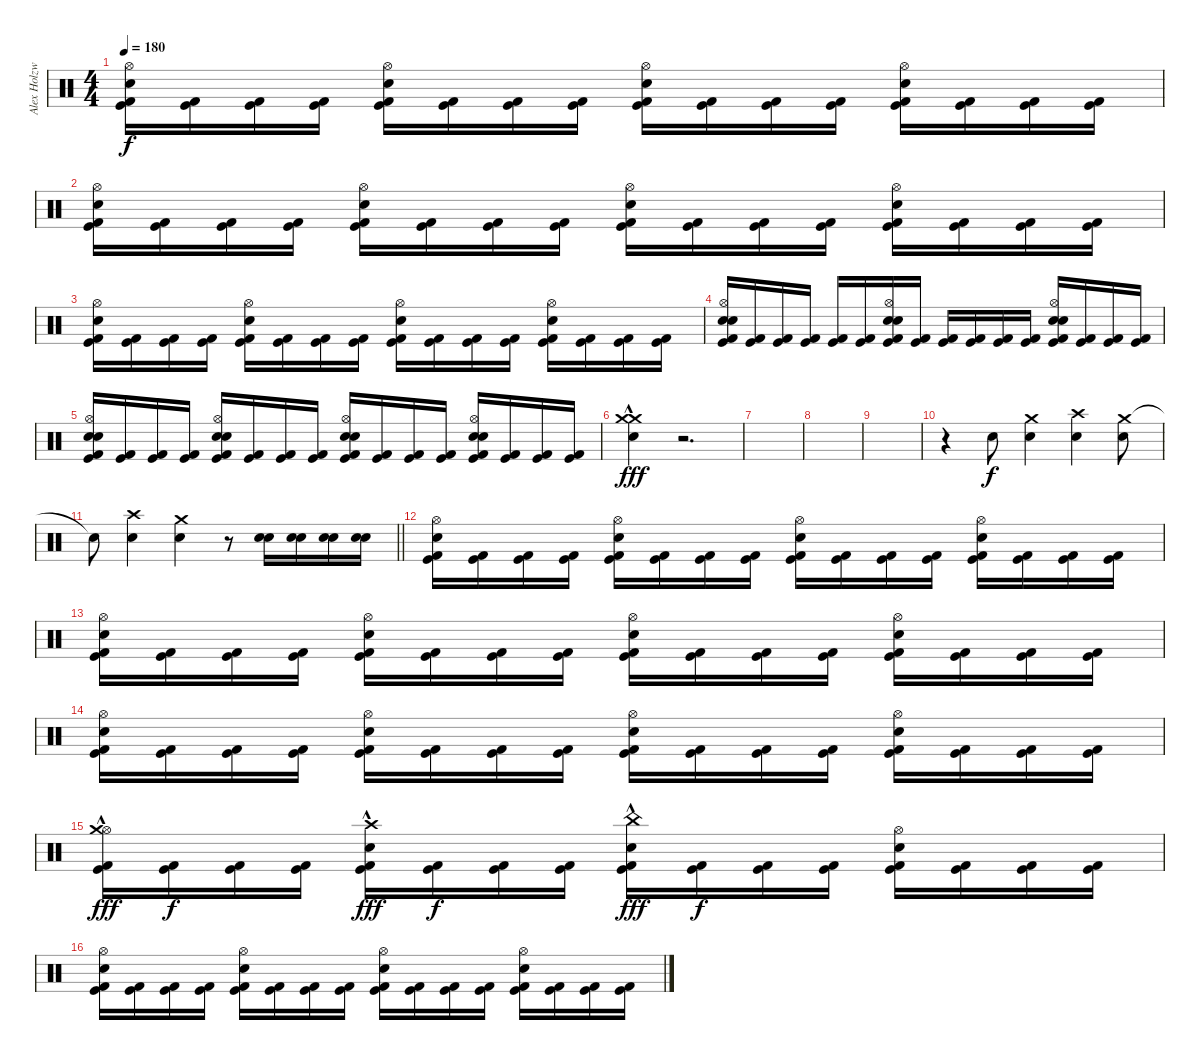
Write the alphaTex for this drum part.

\track ("Alex Holzwarth" "Alex Holzw") {instrument percussion}
\staff {score}
\articulation defaults
\ts (4 4)
\tempo 180
\clef neutral
\ks c
("Kick (hit) 2" "Kick (hit)" "Snare (hit) 2" "Hi-Hat (open)").16{dy f} ("Kick (hit) 2" "Kick (hit)").16 ("Kick (hit) 2" "Kick (hit)").16 ("Kick (hit) 2" "Kick (hit)").16 ("Kick (hit) 2" "Kick (hit)" "Hi-Hat (open)" "Snare (hit) 2").16 ("Kick (hit) 2" "Kick (hit)").16 ("Kick (hit) 2" "Kick (hit)").16 ("Kick (hit) 2" "Kick (hit)").16 ("Kick (hit) 2" "Kick (hit)" "Hi-Hat (open)" "Snare (hit) 2").16 ("Kick (hit) 2" "Kick (hit)").16 ("Kick (hit) 2" "Kick (hit)").16 ("Kick (hit) 2" "Kick (hit)").16 ("Kick (hit) 2" "Kick (hit)" "Hi-Hat (open)" "Snare (hit) 2").16 ("Kick (hit) 2" "Kick (hit)").16 ("Kick (hit) 2" "Kick (hit)").16 ("Kick (hit) 2" "Kick (hit)").16 |
("Kick (hit) 2" "Kick (hit)" "Snare (hit) 2" "Hi-Hat (open)").16 ("Kick (hit) 2" "Kick (hit)").16 ("Kick (hit) 2" "Kick (hit)").16 ("Kick (hit) 2" "Kick (hit)").16 ("Kick (hit) 2" "Kick (hit)" "Hi-Hat (open)" "Snare (hit) 2").16 ("Kick (hit) 2" "Kick (hit)").16 ("Kick (hit) 2" "Kick (hit)").16 ("Kick (hit) 2" "Kick (hit)").16 ("Kick (hit) 2" "Kick (hit)" "Hi-Hat (open)" "Snare (hit) 2").16 ("Kick (hit) 2" "Kick (hit)").16 ("Kick (hit) 2" "Kick (hit)").16 ("Kick (hit) 2" "Kick (hit)").16 ("Kick (hit) 2" "Kick (hit)" "Hi-Hat (open)" "Snare (hit) 2").16 ("Kick (hit) 2" "Kick (hit)").16 ("Kick (hit) 2" "Kick (hit)").16 ("Kick (hit) 2" "Kick (hit)").16 |
("Kick (hit) 2" "Kick (hit)" "Snare (hit) 2" "Hi-Hat (open)").16 ("Kick (hit) 2" "Kick (hit)").16 ("Kick (hit) 2" "Kick (hit)").16 ("Kick (hit) 2" "Kick (hit)").16 ("Kick (hit) 2" "Kick (hit)" "Hi-Hat (open)" "Snare (hit) 2").16 ("Kick (hit) 2" "Kick (hit)").16 ("Kick (hit) 2" "Kick (hit)").16 ("Kick (hit) 2" "Kick (hit)").16 ("Kick (hit) 2" "Kick (hit)" "Hi-Hat (open)" "Snare (hit) 2").16 ("Kick (hit) 2" "Kick (hit)").16 ("Kick (hit) 2" "Kick (hit)").16 ("Kick (hit) 2" "Kick (hit)").16 ("Kick (hit) 2" "Kick (hit)" "Hi-Hat (open)" "Snare (hit) 2").16 ("Kick (hit) 2" "Kick (hit)").16 ("Kick (hit) 2" "Kick (hit)").16 ("Kick (hit) 2" "Kick (hit)").16 |
("Kick (hit) 2" "Kick (hit)" "Snare (hit) 2" "Electric Snare (hit)" "Hi-Hat (open)").16 ("Kick (hit) 2" "Kick (hit)").16 ("Kick (hit) 2" "Kick (hit)").16 ("Kick (hit) 2" "Kick (hit)").16 ("Kick (hit) 2" "Kick (hit)").16 ("Kick (hit) 2" "Kick (hit)").16 ("Kick (hit) 2" "Kick (hit)" "Snare (hit) 2" "Electric Snare (hit)" "Hi-Hat (open)").16 ("Kick (hit) 2" "Kick (hit)").16 ("Kick (hit) 2" "Kick (hit)").16 ("Kick (hit) 2" "Kick (hit)").16 ("Kick (hit) 2" "Kick (hit)").16 ("Kick (hit) 2" "Kick (hit)").16 ("Kick (hit) 2" "Kick (hit)" "Snare (hit) 2" "Electric Snare (hit)" "Hi-Hat (open)").16 ("Kick (hit) 2" "Kick (hit)").16 ("Kick (hit) 2" "Kick (hit)").16 ("Kick (hit) 2" "Kick (hit)").16 |
("Kick (hit) 2" "Kick (hit)" "Snare (hit) 2" "Electric Snare (hit)" "Hi-Hat (open)").16 ("Kick (hit) 2" "Kick (hit)").16 ("Kick (hit) 2" "Kick (hit)").16 ("Kick (hit) 2" "Kick (hit)").16 ("Kick (hit) 2" "Kick (hit)" "Snare (hit) 2" "Electric Snare (hit)" "Hi-Hat (open)").16 ("Kick (hit) 2" "Kick (hit)").16 ("Kick (hit) 2" "Kick (hit)").16 ("Kick (hit) 2" "Kick (hit)").16 ("Kick (hit) 2" "Kick (hit)" "Hi-Hat (open)" "Snare (hit) 2" "Electric Snare (hit)").16 ("Kick (hit) 2" "Kick (hit)").16 ("Kick (hit) 2" "Kick (hit)").16 ("Kick (hit) 2" "Kick (hit)").16 ("Kick (hit) 2" "Kick (hit)" "Snare (hit) 2" "Electric Snare (hit)" "Hi-Hat (open)").16 ("Kick (hit) 2" "Kick (hit)").16 ("Kick (hit) 2" "Kick (hit)").16 ("Kick (hit) 2" "Kick (hit)").16 |
("Crash medium (hit)"{hac} "Snare (hit) 2" "Crash medium (hit)"{hac}).4{dy fff volume 13} r.2{d volume 0} |
|
|
|
r.4 "Snare (hit) 2".8{dy f} ("Crash medium (hit)" "Snare (hit) 2").4 ("Crash high (hit)" "Snare (hit) 2").4 ("Crash medium (hit)" "Snare (hit) 2").8 |
\barLineRight lightlight "Snare (hit)"{t}.8
("Crash high (hit)" "Snare (hit) 2").4 ("Crash medium (hit)" "Snare (hit) 2").4 r.8 ("Snare (hit) 2" "Electric Snare (hit)").16 ("Snare (hit) 2" "Electric Snare (hit)").16 ("Snare (hit) 2" "Electric Snare (hit)").16 ("Snare (hit) 2" "Electric Snare (hit)").16 |
("Kick (hit) 2" "Kick (hit)" "Snare (hit) 2" "Hi-Hat (open)").16 ("Kick (hit) 2" "Kick (hit)").16 ("Kick (hit) 2" "Kick (hit)").16 ("Kick (hit) 2" "Kick (hit)").16 ("Kick (hit) 2" "Kick (hit)" "Hi-Hat (open)" "Snare (hit) 2").16 ("Kick (hit) 2" "Kick (hit)").16 ("Kick (hit) 2" "Kick (hit)").16 ("Kick (hit) 2" "Kick (hit)").16 ("Kick (hit) 2" "Kick (hit)" "Hi-Hat (open)" "Snare (hit) 2").16 ("Kick (hit) 2" "Kick (hit)").16 ("Kick (hit) 2" "Kick (hit)").16 ("Kick (hit) 2" "Kick (hit)").16 ("Kick (hit) 2" "Kick (hit)" "Hi-Hat (open)" "Snare (hit) 2").16 ("Kick (hit) 2" "Kick (hit)").16 ("Kick (hit) 2" "Kick (hit)").16 ("Kick (hit) 2" "Kick (hit)").16 |
("Kick (hit) 2" "Kick (hit)" "Snare (hit) 2" "Hi-Hat (open)").16 ("Kick (hit) 2" "Kick (hit)").16 ("Kick (hit) 2" "Kick (hit)").16 ("Kick (hit) 2" "Kick (hit)").16 ("Kick (hit) 2" "Kick (hit)" "Hi-Hat (open)" "Snare (hit) 2").16 ("Kick (hit) 2" "Kick (hit)").16 ("Kick (hit) 2" "Kick (hit)").16 ("Kick (hit) 2" "Kick (hit)").16 ("Kick (hit) 2" "Kick (hit)" "Hi-Hat (open)" "Snare (hit) 2").16 ("Kick (hit) 2" "Kick (hit)").16 ("Kick (hit) 2" "Kick (hit)").16 ("Kick (hit) 2" "Kick (hit)").16 ("Kick (hit) 2" "Kick (hit)" "Hi-Hat (open)" "Snare (hit) 2").16 ("Kick (hit) 2" "Kick (hit)").16 ("Kick (hit) 2" "Kick (hit)").16 ("Kick (hit) 2" "Kick (hit)").16 |
("Kick (hit) 2" "Kick (hit)" "Snare (hit) 2" "Hi-Hat (open)").16 ("Kick (hit) 2" "Kick (hit)").16 ("Kick (hit) 2" "Kick (hit)").16 ("Kick (hit) 2" "Kick (hit)").16 ("Kick (hit) 2" "Kick (hit)" "Hi-Hat (open)" "Snare (hit) 2").16 ("Kick (hit) 2" "Kick (hit)").16 ("Kick (hit) 2" "Kick (hit)").16 ("Kick (hit) 2" "Kick (hit)").16 ("Kick (hit) 2" "Kick (hit)" "Hi-Hat (open)" "Snare (hit) 2").16 ("Kick (hit) 2" "Kick (hit)").16 ("Kick (hit) 2" "Kick (hit)").16 ("Kick (hit) 2" "Kick (hit)").16 ("Kick (hit) 2" "Kick (hit)" "Hi-Hat (open)" "Snare (hit) 2").16 ("Kick (hit) 2" "Kick (hit)").16 ("Kick (hit) 2" "Kick (hit)").16 ("Kick (hit) 2" "Kick (hit)").16 |
("Kick (hit) 2" "Kick (hit)" "Hi-Hat (open)" "Crash medium (hit)"{hac}).16{dy fff} ("Kick (hit) 2" "Kick (hit)").16{dy f} ("Kick (hit) 2" "Kick (hit)").16 ("Kick (hit) 2" "Kick (hit)").16 ("Kick (hit) 2" "Kick (hit)" "Snare (hit) 2" "Crash high (hit)"{hac}).16{dy fff} ("Kick (hit) 2" "Kick (hit)").16{dy f} ("Kick (hit) 2" "Kick (hit)").16 ("Kick (hit) 2" "Kick (hit)").16 ("Kick (hit) 2" "Kick (hit)" "Snare (hit) 2" "China (hit)"{hac}).16{dy fff} ("Kick (hit) 2" "Kick (hit)").16{dy f} ("Kick (hit) 2" "Kick (hit)").16 ("Kick (hit) 2" "Kick (hit)").16 ("Kick (hit) 2" "Kick (hit)" "Hi-Hat (open)" "Snare (hit) 2").16 ("Kick (hit) 2" "Kick (hit)").16 ("Kick (hit) 2" "Kick (hit)").16 ("Kick (hit) 2" "Kick (hit)").16 |
("Kick (hit) 2" "Kick (hit)" "Snare (hit) 2" "Hi-Hat (open)").16 ("Kick (hit) 2" "Kick (hit)").16 ("Kick (hit) 2" "Kick (hit)").16 ("Kick (hit) 2" "Kick (hit)").16 ("Kick (hit) 2" "Kick (hit)" "Hi-Hat (open)" "Snare (hit) 2").16 ("Kick (hit) 2" "Kick (hit)").16 ("Kick (hit) 2" "Kick (hit)").16 ("Kick (hit) 2" "Kick (hit)").16 ("Kick (hit) 2" "Kick (hit)" "Hi-Hat (open)" "Snare (hit) 2").16 ("Kick (hit) 2" "Kick (hit)").16 ("Kick (hit) 2" "Kick (hit)").16 ("Kick (hit) 2" "Kick (hit)").16 ("Kick (hit) 2" "Kick (hit)" "Hi-Hat (open)" "Snare (hit) 2").16 ("Kick (hit) 2" "Kick (hit)").16 ("Kick (hit) 2" "Kick (hit)").16 ("Kick (hit) 2" "Kick (hit)").16
